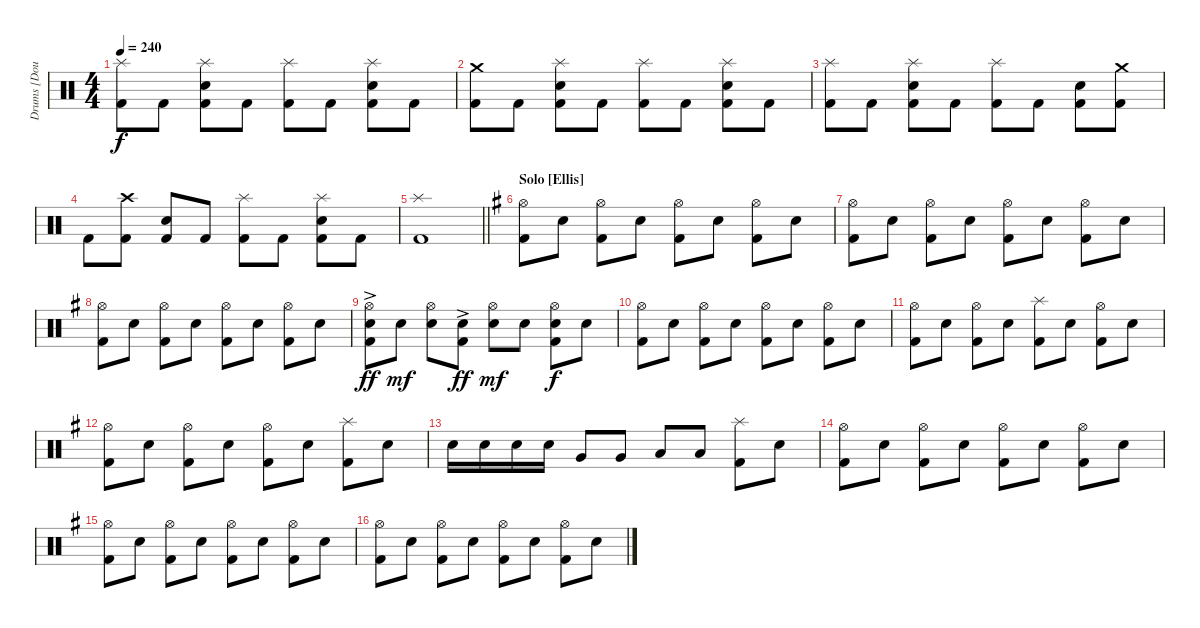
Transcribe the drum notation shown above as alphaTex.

\track ("Drums [Doug Anderson]" "Drums [Dou") {instrument percussion}
\staff {score}
\articulation defaults
\ts (4 4)
\tempo 240
\clef neutral
\ks aminor
("Splash (hit)" "Kick (hit) 2").8{dy f} "Kick (hit) 2".8 ("Splash (hit)" "Electric Snare (hit)" "Kick (hit) 2").8 "Kick (hit) 2".8 ("Splash (hit)" "Kick (hit) 2").8 "Kick (hit) 2".8 ("Splash (hit)" "Electric Snare (hit)" "Kick (hit) 2").8 "Kick (hit) 2".8 |
("Crash medium (hit)" "Kick (hit) 2").8 "Kick (hit) 2".8 ("Splash (hit)" "Electric Snare (hit)" "Kick (hit) 2").8 "Kick (hit) 2".8 ("Splash (hit)" "Kick (hit) 2").8 "Kick (hit) 2".8 ("Splash (hit)" "Electric Snare (hit)" "Kick (hit) 2").8 "Kick (hit) 2".8 |
("Splash (hit)" "Kick (hit) 2").8 "Kick (hit) 2".8 ("Splash (hit)" "Electric Snare (hit)" "Kick (hit) 2").8 "Kick (hit) 2".8 ("Splash (hit)" "Kick (hit) 2").8 "Kick (hit) 2".8 ("Electric Snare (hit)" "Kick (hit) 2").8 ("Crash medium (hit)" "Kick (hit) 2").8 |
"Kick (hit) 2".8 ("Crash high (hit)" "Kick (hit) 2").8 ("Electric Snare (hit)" "Kick (hit) 2").8 "Kick (hit) 2".8 ("Splash (hit)" "Kick (hit) 2").8 "Kick (hit) 2".8 ("Splash (hit)" "Electric Snare (hit)" "Kick (hit) 2").8 "Kick (hit) 2".8 |
\barLineRight lightlight
("Splash (hit)" "Kick (hit) 2").1 |
\section ("" "Solo [Ellis]")
\ks eminor
("Hi-Hat (open)" "Kick (hit) 2").8 "Electric Snare (hit)".8 ("Hi-Hat (open)" "Kick (hit) 2").8 "Electric Snare (hit)".8 ("Hi-Hat (open)" "Kick (hit) 2").8 "Electric Snare (hit)".8 ("Hi-Hat (open)" "Kick (hit) 2").8 "Electric Snare (hit)".8 |
("Hi-Hat (open)" "Kick (hit) 2").8 "Electric Snare (hit)".8 ("Hi-Hat (open)" "Kick (hit) 2").8 "Electric Snare (hit)".8 ("Hi-Hat (open)" "Kick (hit) 2").8 "Electric Snare (hit)".8 ("Hi-Hat (open)" "Kick (hit) 2").8 "Electric Snare (hit)".8 |
("Hi-Hat (open)" "Kick (hit) 2").8 "Electric Snare (hit)".8 ("Hi-Hat (open)" "Kick (hit) 2").8 "Electric Snare (hit)".8 ("Hi-Hat (open)" "Kick (hit) 2").8 "Electric Snare (hit)".8 ("Hi-Hat (open)" "Kick (hit) 2").8 "Electric Snare (hit)".8 |
("Hi-Hat (open)" "Electric Snare (hit)"{ac} "Kick (hit) 2").8{dy ff} "Electric Snare (hit)".8{dy mf} ("Hi-Hat (open)" "Electric Snare (hit)").8 ("Electric Snare (hit)"{ac} "Kick (hit) 2").8{dy ff} ("Hi-Hat (open)" "Electric Snare (hit)").8{dy mf} "Electric Snare (hit)".8 ("Hi-Hat (open)" "Electric Snare (hit)" "Kick (hit) 2").8{dy f} "Electric Snare (hit)".8 |
("Hi-Hat (open)" "Kick (hit) 2").8 "Electric Snare (hit)".8 ("Hi-Hat (open)" "Kick (hit) 2").8 "Electric Snare (hit)".8 ("Hi-Hat (open)" "Kick (hit) 2").8 "Electric Snare (hit)".8 ("Hi-Hat (open)" "Kick (hit) 2").8 "Electric Snare (hit)".8 |
("Hi-Hat (open)" "Kick (hit) 2").8 "Electric Snare (hit)".8 ("Hi-Hat (open)" "Kick (hit) 2").8 "Electric Snare (hit)".8 ("Splash (hit)" "Kick (hit) 2").8 "Electric Snare (hit)".8 ("Hi-Hat (open)" "Kick (hit) 2").8 "Electric Snare (hit)".8 |
("Hi-Hat (open)" "Kick (hit) 2").8 "Electric Snare (hit)".8 ("Hi-Hat (open)" "Kick (hit) 2").8 "Electric Snare (hit)".8 ("Hi-Hat (open)" "Kick (hit) 2").8 "Electric Snare (hit)".8 ("Splash (hit)" "Kick (hit) 2").8 "Electric Snare (hit)".8 |
"Electric Snare (hit)".16 "Electric Snare (hit)".16 "Electric Snare (hit)".16 "Electric Snare (hit)".16 "Very Low Tom (hit)".8 "Very Low Tom (hit)".8 "Low Tom (hit)".8 "Low Tom (hit)".8 ("Splash (hit)" "Kick (hit) 2").8 "Electric Snare (hit)".8 |
("Hi-Hat (open)" "Kick (hit) 2").8 "Electric Snare (hit)".8 ("Hi-Hat (open)" "Kick (hit) 2").8 "Electric Snare (hit)".8 ("Hi-Hat (open)" "Kick (hit) 2").8 "Electric Snare (hit)".8 ("Hi-Hat (open)" "Kick (hit) 2").8 "Electric Snare (hit)".8 |
("Hi-Hat (open)" "Kick (hit) 2").8 "Electric Snare (hit)".8 ("Hi-Hat (open)" "Kick (hit) 2").8 "Electric Snare (hit)".8 ("Hi-Hat (open)" "Kick (hit) 2").8 "Electric Snare (hit)".8 ("Hi-Hat (open)" "Kick (hit) 2").8 "Electric Snare (hit)".8 |
("Hi-Hat (open)" "Kick (hit) 2").8 "Electric Snare (hit)".8 ("Hi-Hat (open)" "Kick (hit) 2").8 "Electric Snare (hit)".8 ("Hi-Hat (open)" "Kick (hit) 2").8 "Electric Snare (hit)".8 ("Hi-Hat (open)" "Kick (hit) 2").8 "Electric Snare (hit)".8
